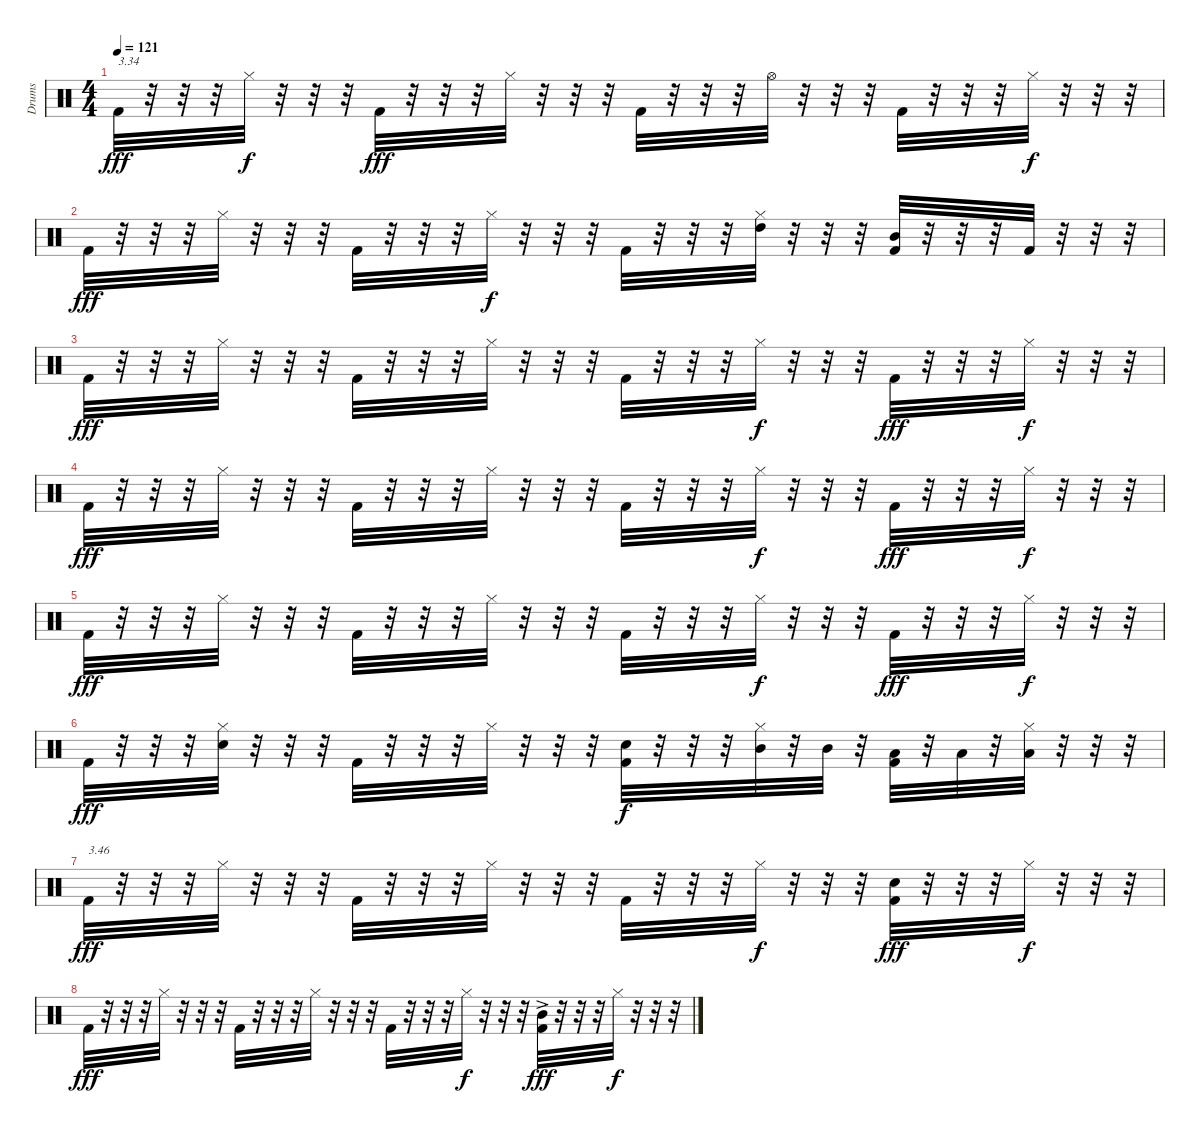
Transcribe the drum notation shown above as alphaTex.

\track ("Drums" "Drums") {instrument percussion}
\staff {score}
\articulation defaults
\ts (4 4)
\tempo 121
\clef neutral
\ks c "Kick (hit) 2".32{txt "3.34" dy fff}
r.32 r.32 r.32 "Hi-Hat (closed)".32{dy f} r.32 r.32 r.32 "Kick (hit) 2".32{dy fff} r.32 r.32 r.32 "Hi-Hat (closed)".32 r.32 r.32 r.32 "Kick (hit) 2".32 r.32 r.32 r.32 "Hi-Hat (open)".32 r.32 r.32 r.32 "Kick (hit) 2".32 r.32 r.32 r.32 "Hi-Hat (closed)".32{dy f} r.32 r.32 r.32 |
"Kick (hit) 2".32{dy fff} r.32 r.32 r.32 "Hi-Hat (closed)".32 r.32 r.32 r.32 "Kick (hit) 2".32 r.32 r.32 r.32 "Hi-Hat (closed)".32{dy f} r.32 r.32 r.32 "Kick (hit) 2".32 r.32 r.32 r.32 ("Hi-Hat (closed)" "High Tom (hit)").32 r.32 r.32 r.32 ("Kick (hit) 2" "Mid Tom (hit)").32 r.32 r.32 r.32 "Kick (hit) 2".32 r.32 r.32 r.32 |
"Kick (hit) 2".32{dy fff} r.32 r.32 r.32 "Hi-Hat (closed)".32 r.32 r.32 r.32 "Kick (hit) 2".32 r.32 r.32 r.32 "Hi-Hat (closed)".32 r.32 r.32 r.32 "Kick (hit) 2".32 r.32 r.32 r.32 "Hi-Hat (closed)".32{dy f} r.32 r.32 r.32 "Kick (hit) 2".32{dy fff} r.32 r.32 r.32 "Hi-Hat (closed)".32{dy f} r.32 r.32 r.32 |
"Kick (hit) 2".32{dy fff} r.32 r.32 r.32 "Hi-Hat (closed)".32 r.32 r.32 r.32 "Kick (hit) 2".32 r.32 r.32 r.32 "Hi-Hat (closed)".32 r.32 r.32 r.32 "Kick (hit) 2".32 r.32 r.32 r.32 "Hi-Hat (closed)".32{dy f} r.32 r.32 r.32 "Kick (hit) 2".32{dy fff} r.32 r.32 r.32 "Hi-Hat (closed)".32{dy f} r.32 r.32 r.32 |
"Kick (hit) 2".32{dy fff} r.32 r.32 r.32 "Hi-Hat (closed)".32 r.32 r.32 r.32 "Kick (hit) 2".32 r.32 r.32 r.32 "Hi-Hat (closed)".32 r.32 r.32 r.32 "Kick (hit) 2".32 r.32 r.32 r.32 "Hi-Hat (closed)".32{dy f} r.32 r.32 r.32 "Kick (hit) 2".32{dy fff} r.32 r.32 r.32 "Hi-Hat (closed)".32{dy f} r.32 r.32 r.32 |
"Kick (hit) 2".32{dy fff} r.32 r.32 r.32 ("Hi-Hat (closed)" "Electric Snare (hit)").32 r.32 r.32 r.32 "Kick (hit) 2".32 r.32 r.32 r.32 "Hi-Hat (closed)".32 r.32 r.32 r.32 ("Kick (hit) 2" "Electric Snare (hit)").32{dy f} r.32 r.32 r.32 ("Hi-Hat (closed)" "Mid Tom (hit)").32 r.32 "Mid Tom (hit)".32 r.32 ("Kick (hit) 2" "Low Tom (hit)").32 r.32 "Low Tom (hit)".32 r.32 ("Hi-Hat (closed)" "Low Tom (hit)").32 r.32 r.32 r.32 |
"Kick (hit) 2".32{txt "3.46" dy fff} r.32 r.32 r.32 "Hi-Hat (closed)".32 r.32 r.32 r.32 "Kick (hit) 2".32 r.32 r.32 r.32 "Hi-Hat (closed)".32 r.32 r.32 r.32 "Kick (hit) 2".32 r.32 r.32 r.32 "Hi-Hat (closed)".32{dy f} r.32 r.32 r.32 ("Kick (hit) 2" "Electric Snare (hit)").32{dy fff} r.32 r.32 r.32 "Hi-Hat (closed)".32{dy f} r.32 r.32 r.32 |
"Kick (hit) 2".32{dy fff} r.32 r.32 r.32 "Hi-Hat (closed)".32 r.32 r.32 r.32 "Kick (hit) 2".32 r.32 r.32 r.32 "Hi-Hat (closed)".32 r.32 r.32 r.32 "Kick (hit) 2".32 r.32 r.32 r.32 "Hi-Hat (closed)".32{dy f} r.32 r.32 r.32 ("Kick (hit) 2" "Mid Tom (hit)"{ac}).32{dy fff} r.32 r.32 r.32 "Hi-Hat (closed)".32{dy f} r.32 r.32 r.32
